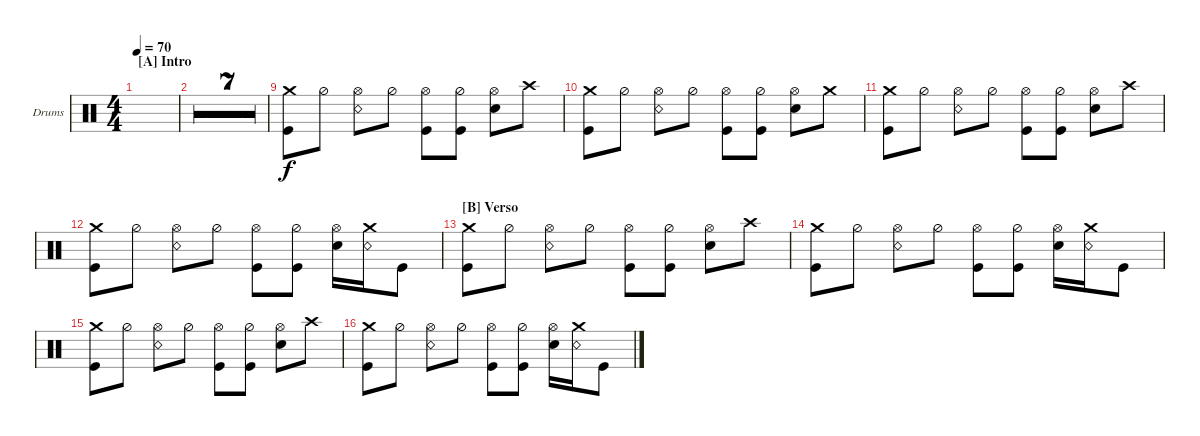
\defaultSystemsLayout 4
\bracketExtendMode groupsimilarinstruments
\firstSystemTrackNameOrientation horizontal
\otherSystemsTrackNameOrientation horizontal
\track ("Drum" "Drums") {multiBarRest instrument percussion}
\staff {score}
\articulation defaults
\ts (4 4)
\section ("A" "Intro")
\tempo 70
\clef neutral
\ks c
|
|
|
|
|
|
|
|
("Crash medium (hit)" "Kick (hit)").8 "Hi-Hat (half)".8 ("Hi-Hat (open)" "Snare (rim shot)").8 "Hi-Hat (half)".8 ("Hi-Hat (open)" "Kick (hit)").8 ("Hi-Hat (half)" "Kick (hit)").8 ("Hi-Hat (open)" "Snare (hit) 2").8 "Crash high (hit)".8 |
("Kick (hit)" "Crash medium (hit)").8 "Hi-Hat (half)".8 ("Hi-Hat (open)" "Snare (rim shot)").8 "Hi-Hat (half)".8 ("Hi-Hat (open)" "Kick (hit)").8 ("Hi-Hat (half)" "Kick (hit)").8 ("Hi-Hat (open)" "Snare (hit) 2").8 "Crash medium (hit)".8 |
("Crash medium (hit)" "Kick (hit)").8 "Hi-Hat (half)".8 ("Hi-Hat (open)" "Snare (rim shot)").8 "Hi-Hat (half)".8 ("Hi-Hat (open)" "Kick (hit)").8 ("Hi-Hat (half)" "Kick (hit)").8 ("Hi-Hat (open)" "Snare (hit) 2").8 "Crash high (hit)".8 |
("Crash medium (hit)" "Kick (hit)").8 "Hi-Hat (half)".8 ("Hi-Hat (open)" "Snare (rim shot)").8 "Hi-Hat (half)".8 ("Hi-Hat (open)" "Kick (hit)").8 ("Hi-Hat (half)" "Kick (hit)").8 ("Hi-Hat (open)" "Snare (hit) 2").16 ("Crash medium (hit)" "Snare (rim shot)").16 "Kick (hit)".8 |
\section ("B" "Verso")
("Crash medium (hit)" "Kick (hit)").8 "Hi-Hat (half)".8 ("Hi-Hat (open)" "Snare (rim shot)").8 "Hi-Hat (half)".8 ("Hi-Hat (open)" "Kick (hit)").8 ("Hi-Hat (half)" "Kick (hit)").8 ("Hi-Hat (open)" "Snare (hit) 2").8 "Crash high (hit)".8 |
("Crash medium (hit)" "Kick (hit)").8 "Hi-Hat (half)".8 ("Hi-Hat (open)" "Snare (rim shot)").8 "Hi-Hat (half)".8 ("Hi-Hat (open)" "Kick (hit)").8 ("Hi-Hat (half)" "Kick (hit)").8 ("Hi-Hat (open)" "Snare (hit) 2").16 ("Crash medium (hit)" "Snare (rim shot)").16 "Kick (hit)".8 |
("Crash medium (hit)" "Kick (hit)").8 "Hi-Hat (half)".8 ("Hi-Hat (open)" "Snare (rim shot)").8 "Hi-Hat (half)".8 ("Hi-Hat (open)" "Kick (hit)").8 ("Hi-Hat (half)" "Kick (hit)").8 ("Hi-Hat (open)" "Snare (hit) 2").8 "Crash high (hit)".8 |
("Crash medium (hit)" "Kick (hit)").8 "Hi-Hat (half)".8 ("Hi-Hat (open)" "Snare (rim shot)").8 "Hi-Hat (half)".8 ("Hi-Hat (open)" "Kick (hit)").8 ("Hi-Hat (half)" "Kick (hit)").8 ("Hi-Hat (open)" "Snare (hit) 2").16 ("Crash medium (hit)" "Snare (rim shot)").16 "Kick (hit)".8
